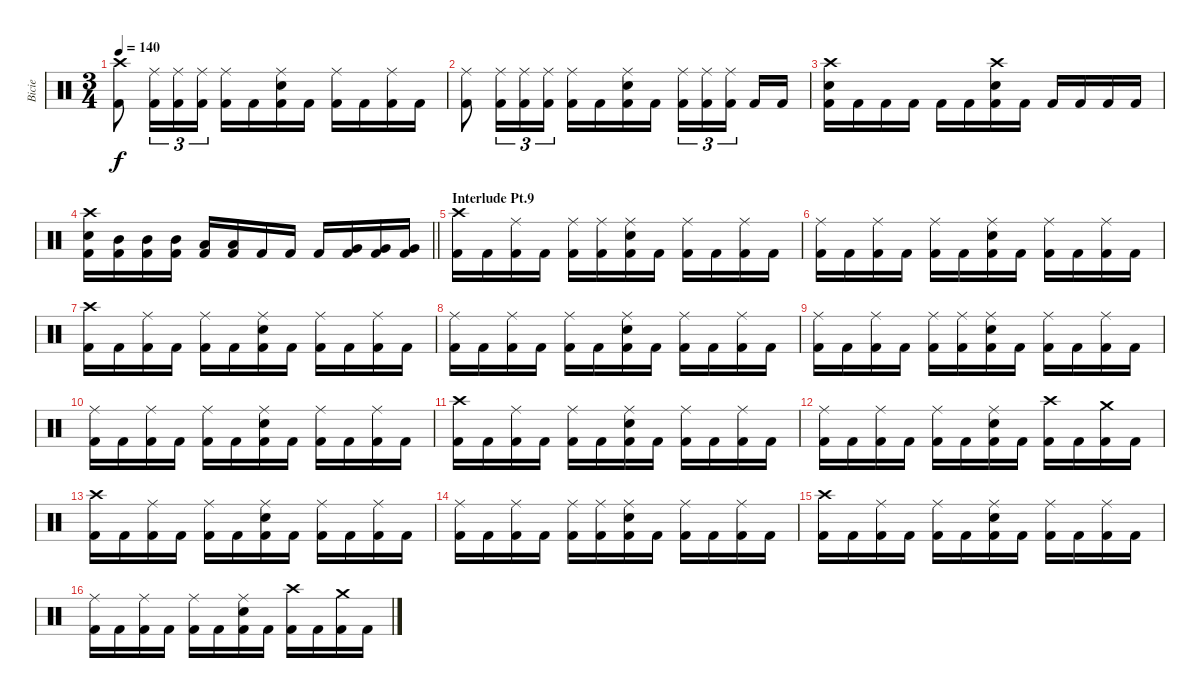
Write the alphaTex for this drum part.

\track ("Bicie" "Bicie") {instrument percussion}
\staff {score}
\articulation defaults
\ts (3 4)
\tempo 140
\clef neutral
\ks c
("Crash high (hit)" "Kick (hit) 2").8{dy f} ("Ride (middle)" "Kick (hit) 2").16{tu (3 2)} ("Ride (middle)" "Kick (hit) 2").16{tu (3 2)} ("Ride (middle)" "Kick (hit) 2").16{tu (3 2)} ("Ride (middle)" "Kick (hit) 2").16 "Kick (hit) 2".16 ("Ride (middle)" "Snare (hit) 2" "Kick (hit) 2").16 "Kick (hit) 2".16 ("Ride (middle)" "Kick (hit) 2").16 "Kick (hit) 2".16 ("Ride (middle)" "Kick (hit) 2").16 "Kick (hit) 2".16 |
("Ride (middle)" "Kick (hit) 2").8 ("Ride (middle)" "Kick (hit) 2").16{tu (3 2)} ("Ride (middle)" "Kick (hit) 2").16{tu (3 2)} ("Ride (middle)" "Kick (hit) 2").16{tu (3 2)} ("Ride (middle)" "Kick (hit) 2").16 "Kick (hit) 2".16 ("Ride (middle)" "Snare (hit) 2" "Kick (hit) 2").16 "Kick (hit) 2".16 ("Ride (middle)" "Kick (hit) 2").16{tu (3 2)} ("Ride (middle)" "Kick (hit) 2").16{tu (3 2)} ("Ride (middle)" "Kick (hit) 2").16{tu (3 2) beam splitsecondary} "Kick (hit) 2".16 "Kick (hit) 2".16 |
("Crash high (hit)" "Snare (hit) 2" "Kick (hit) 2").16 "Kick (hit) 2".16 "Kick (hit) 2".16 "Kick (hit) 2".16 "Kick (hit) 2".16 "Kick (hit) 2".16 ("Crash high (hit)" "Snare (hit) 2" "Kick (hit) 2").16 "Kick (hit) 2".16 "Kick (hit) 2".16 "Kick (hit) 2".16 "Kick (hit) 2".16 "Kick (hit) 2".16 |
\barLineRight lightlight
("Crash high (hit)" "Snare (hit) 2" "Kick (hit) 2").16 ("Mid Tom (hit)" "Kick (hit) 2").16 ("Mid Tom (hit)" "Kick (hit) 2").16 ("Mid Tom (hit)" "Kick (hit) 2").16 ("Low Tom (hit)" "Kick (hit) 2").16 ("Low Tom (hit)" "Kick (hit) 2").16 "Kick (hit) 2".16 "Kick (hit) 2".16 "Kick (hit) 2".16 ("Very Low Tom (hit)" "Kick (hit) 2").16 ("Very Low Tom (hit)" "Kick (hit) 2").16 ("Very Low Tom (hit)" "Kick (hit) 2").16 |
\section ("" "Interlude Pt.9")
("Crash high (hit)" "Kick (hit) 2").16 "Kick (hit) 2".16 ("Ride (middle)" "Kick (hit) 2").16 "Kick (hit) 2".16 ("Ride (middle)" "Kick (hit) 2").16 ("Ride (middle)" "Kick (hit) 2").16 ("Ride (middle)" "Snare (hit) 2" "Kick (hit) 2").16 "Kick (hit) 2".16 ("Ride (middle)" "Kick (hit) 2").16 "Kick (hit) 2".16 ("Ride (middle)" "Kick (hit) 2").16 "Kick (hit) 2".16 |
("Ride (middle)" "Kick (hit) 2").16 "Kick (hit) 2".16 ("Ride (middle)" "Kick (hit) 2").16 "Kick (hit) 2".16 ("Ride (middle)" "Kick (hit) 2").16 "Kick (hit) 2".16 ("Ride (middle)" "Snare (hit) 2" "Kick (hit) 2").16 "Kick (hit) 2".16 ("Ride (middle)" "Kick (hit) 2").16 "Kick (hit) 2".16 ("Ride (middle)" "Kick (hit) 2").16 "Kick (hit) 2".16 |
("Crash high (hit)" "Kick (hit) 2").16 "Kick (hit) 2".16 ("Ride (middle)" "Kick (hit) 2").16 "Kick (hit) 2".16 ("Ride (middle)" "Kick (hit) 2").16 "Kick (hit) 2".16 ("Ride (middle)" "Snare (hit) 2" "Kick (hit) 2").16 "Kick (hit) 2".16 ("Ride (middle)" "Kick (hit) 2").16 "Kick (hit) 2".16 ("Ride (middle)" "Kick (hit) 2").16 "Kick (hit) 2".16 |
("Ride (middle)" "Kick (hit) 2").16 "Kick (hit) 2".16 ("Ride (middle)" "Kick (hit) 2").16 "Kick (hit) 2".16 ("Ride (middle)" "Kick (hit) 2").16 "Kick (hit) 2".16 ("Ride (middle)" "Snare (hit) 2" "Kick (hit) 2").16 "Kick (hit) 2".16 ("Ride (middle)" "Kick (hit) 2").16 "Kick (hit) 2".16 ("Ride (middle)" "Kick (hit) 2").16 "Kick (hit) 2".16 |
("Ride (middle)" "Kick (hit) 2").16 "Kick (hit) 2".16 ("Ride (middle)" "Kick (hit) 2").16 "Kick (hit) 2".16 ("Ride (middle)" "Kick (hit) 2").16 ("Ride (middle)" "Kick (hit) 2").16 ("Ride (middle)" "Snare (hit) 2" "Kick (hit) 2").16 "Kick (hit) 2".16 ("Ride (middle)" "Kick (hit) 2").16 "Kick (hit) 2".16 ("Ride (middle)" "Kick (hit) 2").16 "Kick (hit) 2".16 |
("Ride (middle)" "Kick (hit) 2").16 "Kick (hit) 2".16 ("Ride (middle)" "Kick (hit) 2").16 "Kick (hit) 2".16 ("Ride (middle)" "Kick (hit) 2").16 "Kick (hit) 2".16 ("Ride (middle)" "Snare (hit) 2" "Kick (hit) 2").16 "Kick (hit) 2".16 ("Ride (middle)" "Kick (hit) 2").16 "Kick (hit) 2".16 ("Ride (middle)" "Kick (hit) 2").16 "Kick (hit) 2".16 |
("Crash high (hit)" "Kick (hit) 2").16 "Kick (hit) 2".16 ("Ride (middle)" "Kick (hit) 2").16 "Kick (hit) 2".16 ("Ride (middle)" "Kick (hit) 2").16 "Kick (hit) 2".16 ("Ride (middle)" "Snare (hit) 2" "Kick (hit) 2").16 "Kick (hit) 2".16 ("Ride (middle)" "Kick (hit) 2").16 "Kick (hit) 2".16 ("Ride (middle)" "Kick (hit) 2").16 "Kick (hit) 2".16 |
("Ride (middle)" "Kick (hit) 2").16 "Kick (hit) 2".16 ("Ride (middle)" "Kick (hit) 2").16 "Kick (hit) 2".16 ("Ride (middle)" "Kick (hit) 2").16 "Kick (hit) 2".16 ("Ride (middle)" "Snare (hit) 2" "Kick (hit) 2").16 "Kick (hit) 2".16 ("Crash high (hit)" "Kick (hit) 2").16 "Kick (hit) 2".16 ("Crash medium (hit)" "Kick (hit) 2").16 "Kick (hit) 2".16 |
("Crash high (hit)" "Kick (hit) 2").16 "Kick (hit) 2".16 ("Ride (middle)" "Kick (hit) 2").16 "Kick (hit) 2".16 ("Ride (middle)" "Kick (hit) 2").16 "Kick (hit) 2".16 ("Ride (middle)" "Snare (hit) 2" "Kick (hit) 2").16 "Kick (hit) 2".16 ("Ride (middle)" "Kick (hit) 2").16 "Kick (hit) 2".16 ("Ride (middle)" "Kick (hit) 2").16 "Kick (hit) 2".16 |
("Ride (middle)" "Kick (hit) 2").16 "Kick (hit) 2".16 ("Ride (middle)" "Kick (hit) 2").16 "Kick (hit) 2".16 ("Ride (middle)" "Kick (hit) 2").16 ("Ride (middle)" "Kick (hit) 2").16 ("Ride (middle)" "Snare (hit) 2" "Kick (hit) 2").16 "Kick (hit) 2".16 ("Ride (middle)" "Kick (hit) 2").16 "Kick (hit) 2".16 ("Ride (middle)" "Kick (hit) 2").16 "Kick (hit) 2".16 |
("Crash high (hit)" "Kick (hit) 2").16 "Kick (hit) 2".16 ("Ride (middle)" "Kick (hit) 2").16 "Kick (hit) 2".16 ("Ride (middle)" "Kick (hit) 2").16 "Kick (hit) 2".16 ("Ride (middle)" "Snare (hit) 2" "Kick (hit) 2").16 "Kick (hit) 2".16 ("Ride (middle)" "Kick (hit) 2").16 "Kick (hit) 2".16 ("Ride (middle)" "Kick (hit) 2").16 "Kick (hit) 2".16 |
("Ride (middle)" "Kick (hit) 2").16 "Kick (hit) 2".16 ("Ride (middle)" "Kick (hit) 2").16 "Kick (hit) 2".16 ("Ride (middle)" "Kick (hit) 2").16 "Kick (hit) 2".16 ("Ride (middle)" "Snare (hit) 2" "Kick (hit) 2").16 "Kick (hit) 2".16 ("Crash high (hit)" "Kick (hit) 2").16 "Kick (hit) 2".16 ("Crash medium (hit)" "Kick (hit) 2").16 "Kick (hit) 2".16
